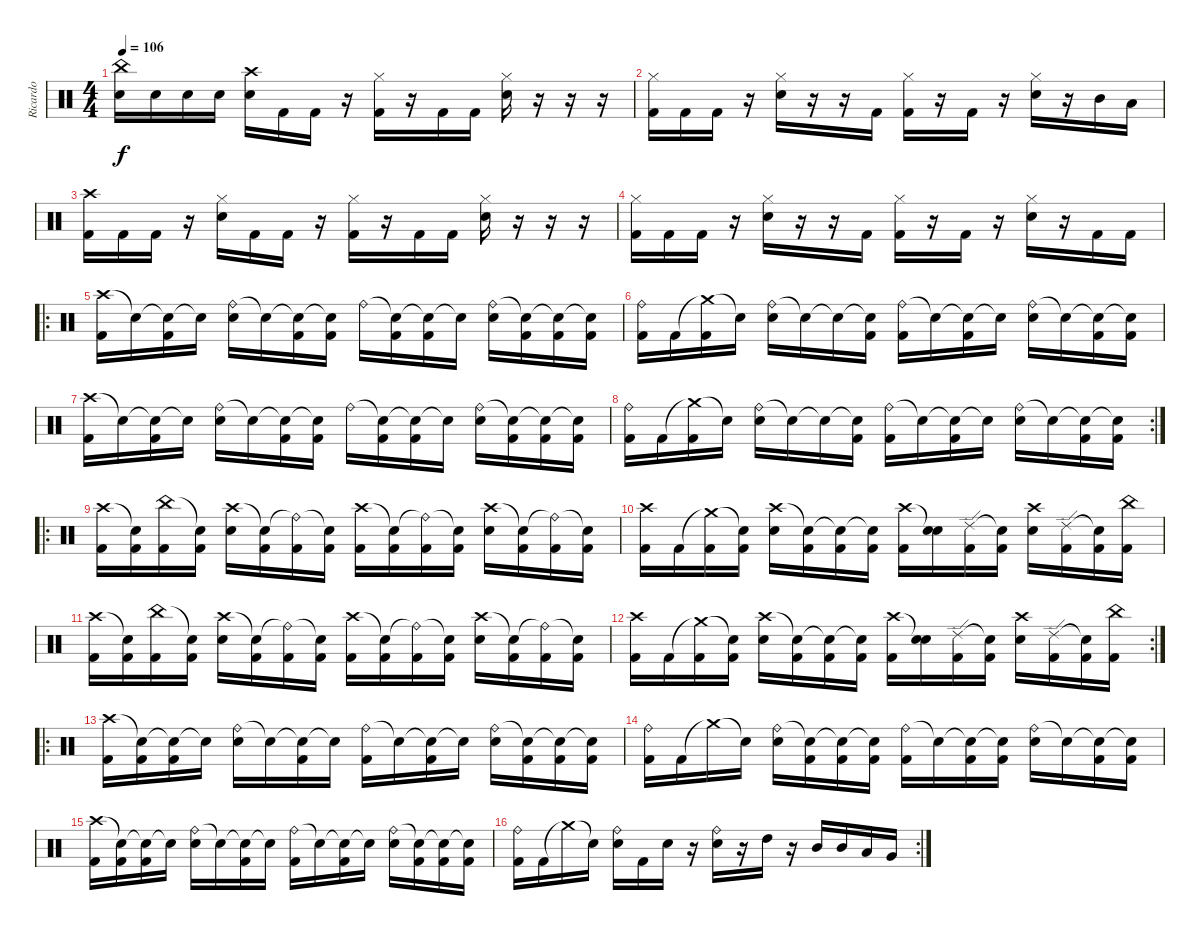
\track ("Ricardo" "Ricardo") {instrument percussion}
\staff {score}
\articulation defaults
\ts (4 4)
\tempo 106
\clef neutral
\ks c
("China (hit)" "Electric Snare (hit)").16{dy f} "Electric Snare (hit)".16 "Electric Snare (hit)".16 "Electric Snare (hit)".16 ("Crash high (hit)" "Electric Snare (hit)").16 "Kick (hit) 2".16 "Kick (hit) 2".16 r.16 ("Hi-Hat (closed)" "Kick (hit) 2").16 r.16 "Kick (hit) 2".16 "Kick (hit) 2".16 ("Hi-Hat (closed)" "Electric Snare (hit)").16 r.16 r.16 r.16 |
("Hi-Hat (closed)" "Kick (hit) 2").16 "Kick (hit) 2".16 "Kick (hit) 2".16 r.16 ("Hi-Hat (closed)" "Electric Snare (hit)").16 r.16 r.16 "Kick (hit) 2".16 ("Hi-Hat (closed)" "Kick (hit) 2").16 r.16 "Kick (hit) 2".16 r.16 ("Hi-Hat (closed)" "Electric Snare (hit)").16 r.16 "Mid Tom (hit)".16 "Low Tom (hit)".16 |
("Crash high (hit)" "Kick (hit) 2").16 "Kick (hit) 2".16 "Kick (hit) 2".16 r.16 ("Hi-Hat (closed)" "Electric Snare (hit)").16 "Kick (hit) 2".16 "Kick (hit) 2".16 r.16 ("Hi-Hat (closed)" "Kick (hit) 2").16 r.16 "Kick (hit) 2".16 "Kick (hit) 2".16 ("Hi-Hat (closed)" "Electric Snare (hit)").16 r.16 r.16 r.16 |
("Hi-Hat (closed)" "Kick (hit) 2").16 "Kick (hit) 2".16 "Kick (hit) 2".16 r.16 ("Hi-Hat (closed)" "Electric Snare (hit)").16 r.16 r.16 "Kick (hit) 2".16 ("Hi-Hat (closed)" "Kick (hit) 2").16 r.16 "Kick (hit) 2".16 r.16 ("Hi-Hat (closed)" "Electric Snare (hit)").16 r.16 "Kick (hit) 2".16 "Kick (hit) 2".16 |
\ro
("Crash high (hit)" "Kick (hit) 2").16 "Snare (hit)"{t}.16 ("Snare (hit)"{t} "Kick (hit) 2").16 "Snare (hit)"{t}.16 ("Ride (bell)" "Electric Snare (hit)").16 "Snare (hit)"{t}.16 ("Snare (hit)"{t} "Kick (hit) 2").16 ("Snare (hit)"{t} "Kick (hit) 2").16 "Ride (bell)".16 ("Snare (hit)"{t} "Kick (hit) 2").16 ("Snare (hit)"{t} "Kick (hit) 2").16 "Snare (hit)"{t}.16 ("Ride (bell)" "Electric Snare (hit)").16 ("Snare (hit)"{t} "Kick (hit) 2").16 ("Snare (hit)"{t} "Kick (hit) 2").16 ("Snare (hit)"{t} "Kick (hit) 2").16 |
("Ride (bell)" "Kick (hit) 2").16 "Kick (hit) 2".16 ("Crash medium (hit)"{t} "Kick (hit) 2").16 "Snare (hit)"{t}.16 ("Ride (bell)" "Electric Snare (hit)").16 "Snare (hit)"{t}.16 "Snare (hit)"{t}.16 ("Snare (hit)"{t} "Kick (hit) 2").16 ("Ride (bell)" "Kick (hit) 2").16 "Snare (hit)"{t}.16 ("Snare (hit)"{t} "Kick (hit) 2").16 "Snare (hit)"{t}.16 ("Ride (bell)" "Electric Snare (hit)").16 "Snare (hit)"{t}.16 ("Snare (hit)"{t} "Kick (hit) 2").16 ("Snare (hit)"{t} "Kick (hit) 2").16 |
("Crash high (hit)" "Kick (hit) 2").16 "Snare (hit)"{t}.16 ("Snare (hit)"{t} "Kick (hit) 2").16 "Snare (hit)"{t}.16 ("Ride (bell)" "Electric Snare (hit)").16 "Snare (hit)"{t}.16 ("Snare (hit)"{t} "Kick (hit) 2").16 ("Snare (hit)"{t} "Kick (hit) 2").16 "Ride (bell)".16 ("Snare (hit)"{t} "Kick (hit) 2").16 ("Snare (hit)"{t} "Kick (hit) 2").16 "Snare (hit)"{t}.16 ("Ride (bell)" "Electric Snare (hit)").16 ("Snare (hit)"{t} "Kick (hit) 2").16 ("Snare (hit)"{t} "Kick (hit) 2").16 ("Snare (hit)"{t} "Kick (hit) 2").16 |
\rc 2
("Ride (bell)" "Kick (hit) 2").16 "Kick (hit) 2".16 ("Crash medium (hit)"{t} "Kick (hit) 2").16 "Snare (hit)"{t}.16 ("Ride (bell)" "Electric Snare (hit)").16 "Snare (hit)"{t}.16 "Snare (hit)"{t}.16 ("Snare (hit)"{t} "Kick (hit) 2").16 ("Ride (bell)" "Kick (hit) 2").16 "Snare (hit)"{t}.16 ("Snare (hit)"{t} "Kick (hit) 2").16 "Snare (hit)"{t}.16 ("Ride (bell)" "Electric Snare (hit)").16 "Snare (hit)"{t}.16 ("Snare (hit)"{t} "Kick (hit) 2").16 ("Snare (hit)"{t} "Kick (hit) 2").16 |
\ro
("Crash high (hit)" "Kick (hit) 2").16 ("Snare (hit)"{t} "Kick (hit) 2").16 ("China (hit)" "Kick (hit) 2").16 ("Snare (hit)"{t} "Kick (hit) 2").16 ("Crash high (hit)" "Electric Snare (hit)").16 ("Snare (hit)"{t} "Kick (hit) 2").16 ("Ride (bell)"{t} "Kick (hit) 2").16 ("Snare (hit)"{t} "Kick (hit) 2").16 ("Crash high (hit)" "Kick (hit) 2").16 ("Snare (hit)"{t} "Kick (hit) 2").16 ("Ride (bell)"{t} "Kick (hit) 2").16 ("Snare (hit)"{t} "Kick (hit) 2").16 ("Crash high (hit)" "Electric Snare (hit)").16 ("Snare (hit)"{t} "Kick (hit) 2").16 ("Ride (bell)"{t} "Kick (hit) 2").16 ("Snare (hit)"{t} "Kick (hit) 2").16 |
("Crash high (hit)" "Kick (hit) 2").16 "Kick (hit) 2".16 ("Crash medium (hit)"{t} "Kick (hit) 2").16 ("Snare (hit)"{t} "Kick (hit) 2").16 ("Crash high (hit)" "Electric Snare (hit)").16 ("Snare (hit)"{t} "Kick (hit) 2").16 ("Snare (hit)"{t} "Kick (hit) 2").16 ("Snare (hit)"{t} "Kick (hit) 2").16 ("Crash high (hit)" "Kick (hit) 2").16 ("Snare (hit)"{t} "Electric Snare (hit)").16 ("Ride (edge) 2" "Kick (hit) 2").16 ("Snare (hit)"{t} "Kick (hit) 2").16 ("Crash high (hit)" "Electric Snare (hit)").16 ("Ride (edge) 2" "Kick (hit) 2").16 ("Snare (hit)"{t} "Kick (hit) 2").16 ("China (hit)" "Kick (hit) 2").16 |
("Crash high (hit)" "Kick (hit) 2").16 ("Snare (hit)"{t} "Kick (hit) 2").16 ("China (hit)" "Kick (hit) 2").16 ("Snare (hit)"{t} "Kick (hit) 2").16 ("Crash high (hit)" "Electric Snare (hit)").16 ("Snare (hit)"{t} "Kick (hit) 2").16 ("Ride (bell)"{t} "Kick (hit) 2").16 ("Snare (hit)"{t} "Kick (hit) 2").16 ("Crash high (hit)" "Kick (hit) 2").16 ("Snare (hit)"{t} "Kick (hit) 2").16 ("Ride (bell)"{t} "Kick (hit) 2").16 ("Snare (hit)"{t} "Kick (hit) 2").16 ("Crash high (hit)" "Electric Snare (hit)").16 ("Snare (hit)"{t} "Kick (hit) 2").16 ("Ride (bell)"{t} "Kick (hit) 2").16 ("Snare (hit)"{t} "Kick (hit) 2").16 |
\rc 2
("Crash high (hit)" "Kick (hit) 2").16 "Kick (hit) 2".16 ("Crash medium (hit)"{t} "Kick (hit) 2").16 ("Snare (hit)"{t} "Kick (hit) 2").16 ("Crash high (hit)" "Electric Snare (hit)").16 ("Snare (hit)"{t} "Kick (hit) 2").16 ("Snare (hit)"{t} "Kick (hit) 2").16 ("Snare (hit)"{t} "Kick (hit) 2").16 ("Crash high (hit)" "Kick (hit) 2").16 ("Snare (hit)"{t} "Electric Snare (hit)").16 ("Ride (edge) 2" "Kick (hit) 2").16 ("Snare (hit)"{t} "Kick (hit) 2").16 ("Crash high (hit)" "Electric Snare (hit)").16 ("Ride (edge) 2" "Kick (hit) 2").16 ("Snare (hit)"{t} "Kick (hit) 2").16 ("China (hit)" "Kick (hit) 2").16 |
\ro
("Crash high (hit)" "Kick (hit) 2").16 ("Snare (hit)"{t} "Kick (hit) 2").16 ("Snare (hit)"{t} "Kick (hit) 2").16 "Snare (hit)"{t}.16 ("Ride (bell)" "Electric Snare (hit)").16 "Snare (hit)"{t}.16 ("Snare (hit)"{t} "Kick (hit) 2").16 "Snare (hit)"{t}.16 ("Ride (bell)" "Kick (hit) 2").16 "Snare (hit)"{t}.16 ("Snare (hit)"{t} "Kick (hit) 2").16 "Snare (hit)"{t}.16 ("Ride (bell)" "Electric Snare (hit)").16 ("Snare (hit)"{t} "Kick (hit) 2").16 ("Snare (hit)"{t} "Kick (hit) 2").16 ("Snare (hit)"{t} "Kick (hit) 2").16 |
("Ride (bell)" "Kick (hit) 2").16 "Kick (hit) 2".16 "Crash medium (hit)"{t}.16 "Snare (hit)"{t}.16 ("Ride (bell)" "Electric Snare (hit)").16 ("Snare (hit)"{t} "Kick (hit) 2").16 ("Snare (hit)"{t} "Kick (hit) 2").16 ("Snare (hit)"{t} "Kick (hit) 2").16 ("Ride (bell)" "Kick (hit) 2").16 "Snare (hit)"{t}.16 ("Snare (hit)"{t} "Kick (hit) 2").16 ("Snare (hit)"{t} "Kick (hit) 2").16 ("Ride (bell)" "Electric Snare (hit)").16 "Snare (hit)"{t}.16 ("Snare (hit)"{t} "Kick (hit) 2").16 ("Snare (hit)"{t} "Kick (hit) 2").16 |
("Crash high (hit)" "Kick (hit) 2").16 ("Snare (hit)"{t} "Kick (hit) 2").16 ("Snare (hit)"{t} "Kick (hit) 2").16 "Snare (hit)"{t}.16 ("Ride (bell)" "Electric Snare (hit)").16 "Snare (hit)"{t}.16 ("Snare (hit)"{t} "Kick (hit) 2").16 "Snare (hit)"{t}.16 ("Ride (bell)" "Kick (hit) 2").16 "Snare (hit)"{t}.16 ("Snare (hit)"{t} "Kick (hit) 2").16 "Snare (hit)"{t}.16 ("Ride (bell)" "Electric Snare (hit)").16 ("Snare (hit)"{t} "Kick (hit) 2").16 ("Snare (hit)"{t} "Kick (hit) 2").16 ("Snare (hit)"{t} "Kick (hit) 2").16 |
\rc 2
("Ride (bell)" "Kick (hit) 2").16 "Kick (hit) 2".16 "Crash medium (hit)"{t}.16 "Snare (hit)"{t}.16 ("Ride (bell)" "Electric Snare (hit)").16 "Kick (hit) 2".16 "Electric Snare (hit)".16 r.16 ("Ride (bell)" "Electric Snare (hit)").16 r.16 "High Tom (hit)".16 r.16 "Mid Tom (hit)".16 "Mid Tom (hit)".16 "Low Tom (hit)".16 "Very Low Tom (hit)".16
